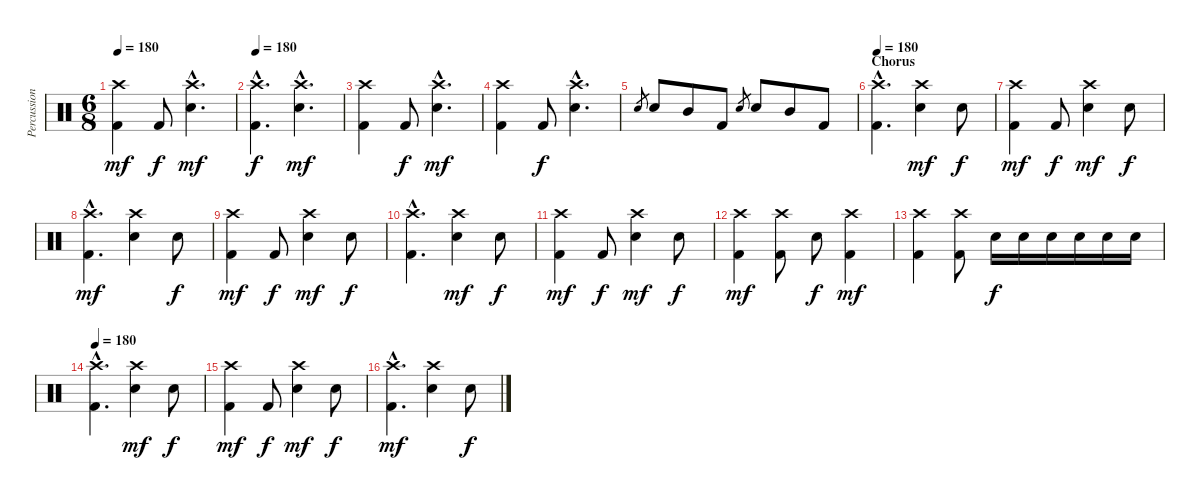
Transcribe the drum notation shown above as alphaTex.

\track ("Percussion" "Percussion") {instrument percussion}
\staff {score}
\articulation defaults
\ts (6 8)
\tempo 180
\clef neutral
\ks c
("Crash high (hit)" "Kick (hit) 2").4{dy mf} "Kick (hit) 2".8{dy f} ("Crash high (hit)"{hac} "Electric Snare (hit)"{hac}).4{d dy mf} |
\tempo 180
("Crash high (hit)"{hac} "Kick (hit) 2"{hac}).4{d dy f} ("Crash high (hit)"{hac} "Electric Snare (hit)"{hac}).4{d dy mf} |
("Crash high (hit)" "Kick (hit) 2").4 "Kick (hit) 2".8{dy f} ("Crash high (hit)"{hac} "Electric Snare (hit)"{hac}).4{d dy mf} |
("Crash high (hit)" "Kick (hit) 2").4 "Kick (hit) 2".8{dy f} ("Crash high (hit)"{hac} "Electric Snare (hit)"{hac}).4{d} |
"Electric Snare (hit)".8{gr} "Electric Snare (hit)".8 "Mid Tom (hit)".8 "Kick (hit) 2".8 "Electric Snare (hit)".8{gr} "Electric Snare (hit)".8 "Mid Tom (hit)".8 "Kick (hit) 2".8 |
\section ("" "Chorus")
\tempo 180
("Crash high (hit)"{hac} "Kick (hit) 2"{hac}).4{d} ("Crash high (hit)" "Electric Snare (hit)").4{dy mf} "Electric Snare (hit)".8{dy f} |
("Crash high (hit)" "Kick (hit) 2").4{dy mf} "Kick (hit) 2".8{dy f} ("Crash high (hit)" "Electric Snare (hit)").4{dy mf} "Electric Snare (hit)".8{dy f} |
("Crash high (hit)"{hac} "Kick (hit) 2"{hac}).4{d dy mf} ("Crash high (hit)" "Electric Snare (hit)").4 "Electric Snare (hit)".8{dy f} |
("Crash high (hit)" "Kick (hit) 2").4{dy mf} "Kick (hit) 2".8{dy f} ("Crash high (hit)" "Electric Snare (hit)").4{dy mf} "Electric Snare (hit)".8{dy f} |
("Crash high (hit)"{hac} "Kick (hit) 2"{hac}).4{d} ("Crash high (hit)" "Electric Snare (hit)").4{dy mf} "Electric Snare (hit)".8{dy f} |
("Crash high (hit)" "Kick (hit) 2").4{dy mf} "Kick (hit) 2".8{dy f} ("Crash high (hit)" "Electric Snare (hit)").4{dy mf} "Electric Snare (hit)".8{dy f} |
("Crash high (hit)" "Kick (hit) 2").4{dy mf} ("Crash high (hit)" "Kick (hit) 2").8 "Electric Snare (hit)".8{dy f} ("Crash high (hit)" "Kick (hit) 2").4{dy mf} |
("Crash high (hit)" "Kick (hit) 2").4 ("Crash high (hit)" "Kick (hit) 2").8 "Electric Snare (hit)".16{dy f} "Electric Snare (hit)".16 "Electric Snare (hit)".16 "Electric Snare (hit)".16 "Electric Snare (hit)".16 "Electric Snare (hit)".16 |
\tempo 180
("Crash high (hit)"{hac} "Kick (hit) 2"{hac}).4{d} ("Crash high (hit)" "Electric Snare (hit)").4{dy mf} "Electric Snare (hit)".8{dy f} |
("Crash high (hit)" "Kick (hit) 2").4{dy mf} "Kick (hit) 2".8{dy f} ("Crash high (hit)" "Electric Snare (hit)").4{dy mf} "Electric Snare (hit)".8{dy f} |
("Crash high (hit)"{hac} "Kick (hit) 2"{hac}).4{d dy mf} ("Crash high (hit)" "Electric Snare (hit)").4 "Electric Snare (hit)".8{dy f}
